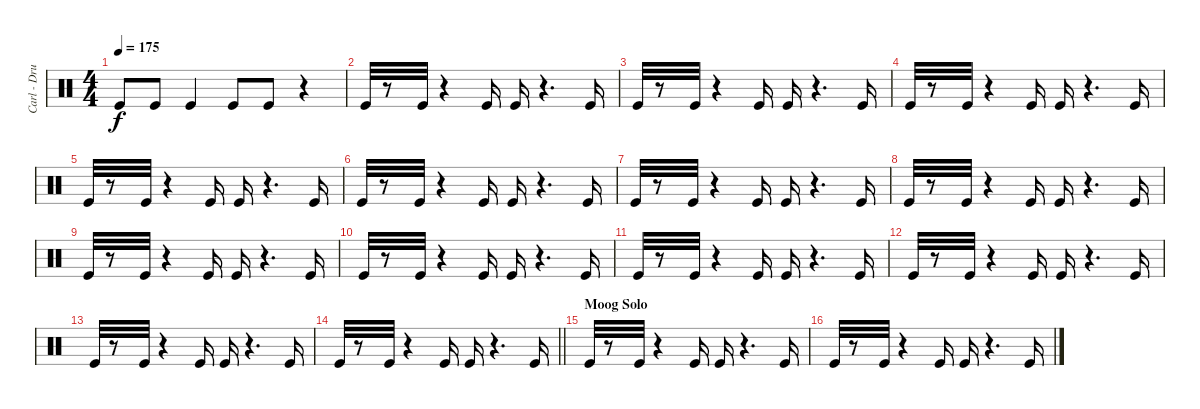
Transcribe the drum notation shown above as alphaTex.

\track ("Carl - Drums I" "Carl - Dru") {instrument percussion}
\staff {score}
\articulation defaults
\ts (4 4)
\tempo 175
\clef neutral
\ks c "Kick (hit)".8{dy f} "Kick (hit)".8 "Kick (hit)".4 "Kick (hit)".8 "Kick (hit)".8
r.4 |
"Kick (hit)".32 r.8 "Kick (hit)".32 r.4 "Kick (hit)".16 "Kick (hit)".16 r.4{d} "Kick (hit)".16 |
"Kick (hit)".32 r.8 "Kick (hit)".32 r.4 "Kick (hit)".16 "Kick (hit)".16 r.4{d} "Kick (hit)".16 |
"Kick (hit)".32 r.8 "Kick (hit)".32 r.4 "Kick (hit)".16 "Kick (hit)".16 r.4{d} "Kick (hit)".16 |
"Kick (hit)".32 r.8 "Kick (hit)".32 r.4 "Kick (hit)".16 "Kick (hit)".16 r.4{d} "Kick (hit)".16 |
"Kick (hit)".32 r.8 "Kick (hit)".32 r.4 "Kick (hit)".16 "Kick (hit)".16 r.4{d} "Kick (hit)".16 |
"Kick (hit)".32 r.8 "Kick (hit)".32 r.4 "Kick (hit)".16 "Kick (hit)".16 r.4{d} "Kick (hit)".16 |
"Kick (hit)".32 r.8 "Kick (hit)".32 r.4 "Kick (hit)".16 "Kick (hit)".16 r.4{d} "Kick (hit)".16 |
"Kick (hit)".32 r.8 "Kick (hit)".32 r.4 "Kick (hit)".16 "Kick (hit)".16 r.4{d} "Kick (hit)".16 |
"Kick (hit)".32 r.8 "Kick (hit)".32 r.4 "Kick (hit)".16 "Kick (hit)".16 r.4{d} "Kick (hit)".16 |
"Kick (hit)".32 r.8 "Kick (hit)".32 r.4 "Kick (hit)".16 "Kick (hit)".16 r.4{d} "Kick (hit)".16 |
"Kick (hit)".32 r.8 "Kick (hit)".32 r.4 "Kick (hit)".16 "Kick (hit)".16 r.4{d} "Kick (hit)".16 |
"Kick (hit)".32 r.8 "Kick (hit)".32 r.4 "Kick (hit)".16 "Kick (hit)".16 r.4{d} "Kick (hit)".16 |
\barLineRight lightlight "Kick (hit)".32
r.8 "Kick (hit)".32 r.4 "Kick (hit)".16 "Kick (hit)".16 r.4{d} "Kick (hit)".16 |
\section ("" "Moog Solo")
"Kick (hit)".32 r.8 "Kick (hit)".32 r.4 "Kick (hit)".16 "Kick (hit)".16 r.4{d} "Kick (hit)".16 |
"Kick (hit)".32 r.8 "Kick (hit)".32 r.4 "Kick (hit)".16 "Kick (hit)".16 r.4{d} "Kick (hit)".16
